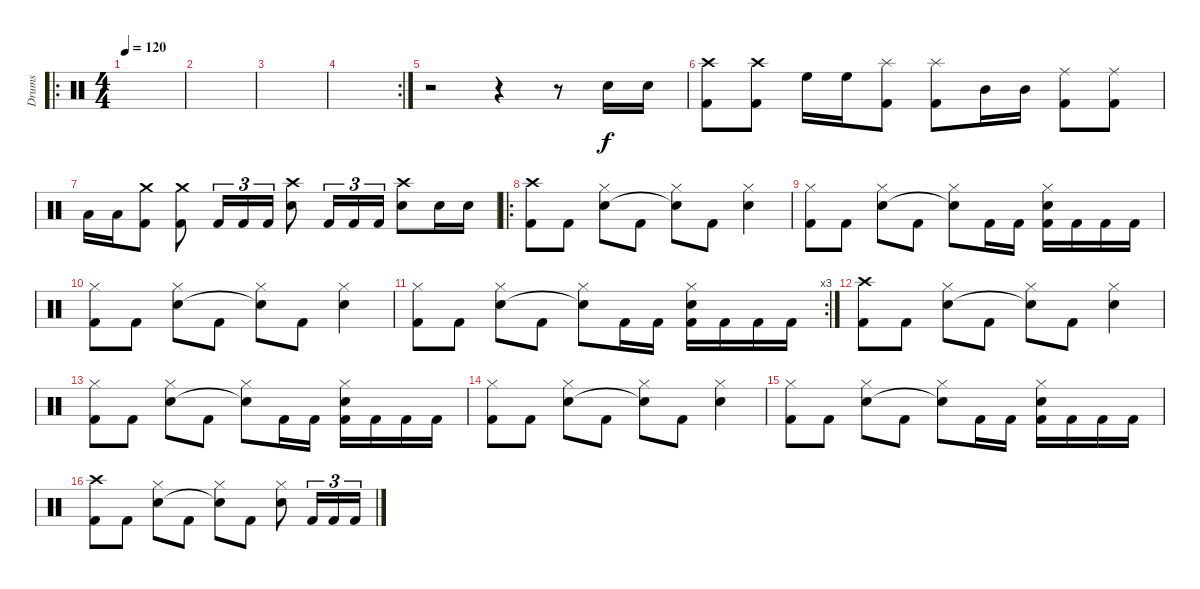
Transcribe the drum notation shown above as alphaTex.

\track ("Drums" "Drums") {instrument percussion}
\staff {score}
\articulation defaults
\ro
\ts (4 4)
\tempo 120
\clef neutral
\ks c
|
|
|
\rc 2
|
r.2 r.4 r.8 "Snare (hit) 2".16 "Snare (hit) 2".16 |
("Crash high (hit)" "Kick (hit) 2").8 ("Crash high (hit)" "Kick (hit) 2").8 "High Floor Tom (hit)".16 "High Floor Tom (hit)".16 ("Splash (hit)" "Kick (hit) 2").8 ("Splash (hit)" "Kick (hit) 2").8 "Mid Tom (hit)".16 "Mid Tom (hit)".16 ("Ride (middle)" "Kick (hit) 2").8 ("Ride (middle)" "Kick (hit) 2").8 |
"Low Tom (hit)".16 "Low Tom (hit)".16 ("Crash medium (hit)" "Kick (hit) 2").8 ("Crash medium (hit)" "Kick (hit) 2").8 "Kick (hit) 2".16{tu (3 2)} "Kick (hit) 2".16{tu (3 2)} "Kick (hit) 2".16{tu (3 2)} ("Crash high (hit)" "Snare (hit) 2").8 "Kick (hit) 2".16{tu (3 2)} "Kick (hit) 2".16{tu (3 2)} "Kick (hit) 2".16{tu (3 2)} ("Crash high (hit)" "Snare (hit) 2").8 "Snare (hit) 2".16 "Snare (hit) 2".16 |
\ro
("Crash high (hit)" "Kick (hit) 2").8 "Kick (hit) 2".8 ("Hi-Hat (closed)" "Snare (hit) 2").8 "Kick (hit) 2".8 ("Hi-Hat (closed)" "Snare (hit)"{t}).8 "Kick (hit) 2".8 ("Hi-Hat (closed)" "Snare (hit) 2").4 |
("Hi-Hat (closed)" "Kick (hit) 2").8 "Kick (hit) 2".8 ("Hi-Hat (closed)" "Snare (hit) 2").8 "Kick (hit) 2".8 ("Hi-Hat (closed)" "Snare (hit)"{t}).8 "Kick (hit) 2".16 "Kick (hit) 2".16 ("Hi-Hat (closed)" "Snare (hit) 2" "Kick (hit) 2").16 "Kick (hit) 2".16 "Kick (hit) 2".16 "Kick (hit) 2".16 |
("Hi-Hat (closed)" "Kick (hit) 2").8 "Kick (hit) 2".8 ("Hi-Hat (closed)" "Snare (hit) 2").8 "Kick (hit) 2".8 ("Hi-Hat (closed)" "Snare (hit)"{t}).8 "Kick (hit) 2".8 ("Hi-Hat (closed)" "Snare (hit) 2").4 |
\rc 3
("Hi-Hat (closed)" "Kick (hit) 2").8 "Kick (hit) 2".8 ("Hi-Hat (closed)" "Snare (hit) 2").8 "Kick (hit) 2".8 ("Hi-Hat (closed)" "Snare (hit)"{t}).8 "Kick (hit) 2".16 "Kick (hit) 2".16 ("Hi-Hat (closed)" "Snare (hit) 2" "Kick (hit) 2").16 "Kick (hit) 2".16 "Kick (hit) 2".16 "Kick (hit) 2".16 |
("Crash high (hit)" "Kick (hit) 2").8 "Kick (hit) 2".8 ("Hi-Hat (closed)" "Snare (hit) 2").8 "Kick (hit) 2".8 ("Hi-Hat (closed)" "Snare (hit)"{t}).8 "Kick (hit) 2".8 ("Hi-Hat (closed)" "Snare (hit) 2").4 |
("Hi-Hat (closed)" "Kick (hit) 2").8 "Kick (hit) 2".8 ("Hi-Hat (closed)" "Snare (hit) 2").8 "Kick (hit) 2".8 ("Hi-Hat (closed)" "Snare (hit)"{t}).8 "Kick (hit) 2".16 "Kick (hit) 2".16 ("Hi-Hat (closed)" "Snare (hit) 2" "Kick (hit) 2").16 "Kick (hit) 2".16 "Kick (hit) 2".16 "Kick (hit) 2".16 |
("Hi-Hat (closed)" "Kick (hit) 2").8 "Kick (hit) 2".8 ("Hi-Hat (closed)" "Snare (hit) 2").8 "Kick (hit) 2".8 ("Hi-Hat (closed)" "Snare (hit)"{t}).8 "Kick (hit) 2".8 ("Hi-Hat (closed)" "Snare (hit) 2").4 |
("Hi-Hat (closed)" "Kick (hit) 2").8 "Kick (hit) 2".8 ("Hi-Hat (closed)" "Snare (hit) 2").8 "Kick (hit) 2".8 ("Hi-Hat (closed)" "Snare (hit)"{t}).8 "Kick (hit) 2".16 "Kick (hit) 2".16 ("Hi-Hat (closed)" "Snare (hit) 2" "Kick (hit) 2").16 "Kick (hit) 2".16 "Kick (hit) 2".16 "Kick (hit) 2".16 |
("Crash high (hit)" "Kick (hit) 2").8 "Kick (hit) 2".8 ("Hi-Hat (closed)" "Snare (hit) 2").8 "Kick (hit) 2".8 ("Hi-Hat (closed)" "Snare (hit)"{t}).8 "Kick (hit) 2".8 ("Hi-Hat (closed)" "Snare (hit) 2").8 "Kick (hit) 2".16{tu (3 2)} "Kick (hit) 2".16{tu (3 2)} "Kick (hit) 2".16{tu (3 2)}
